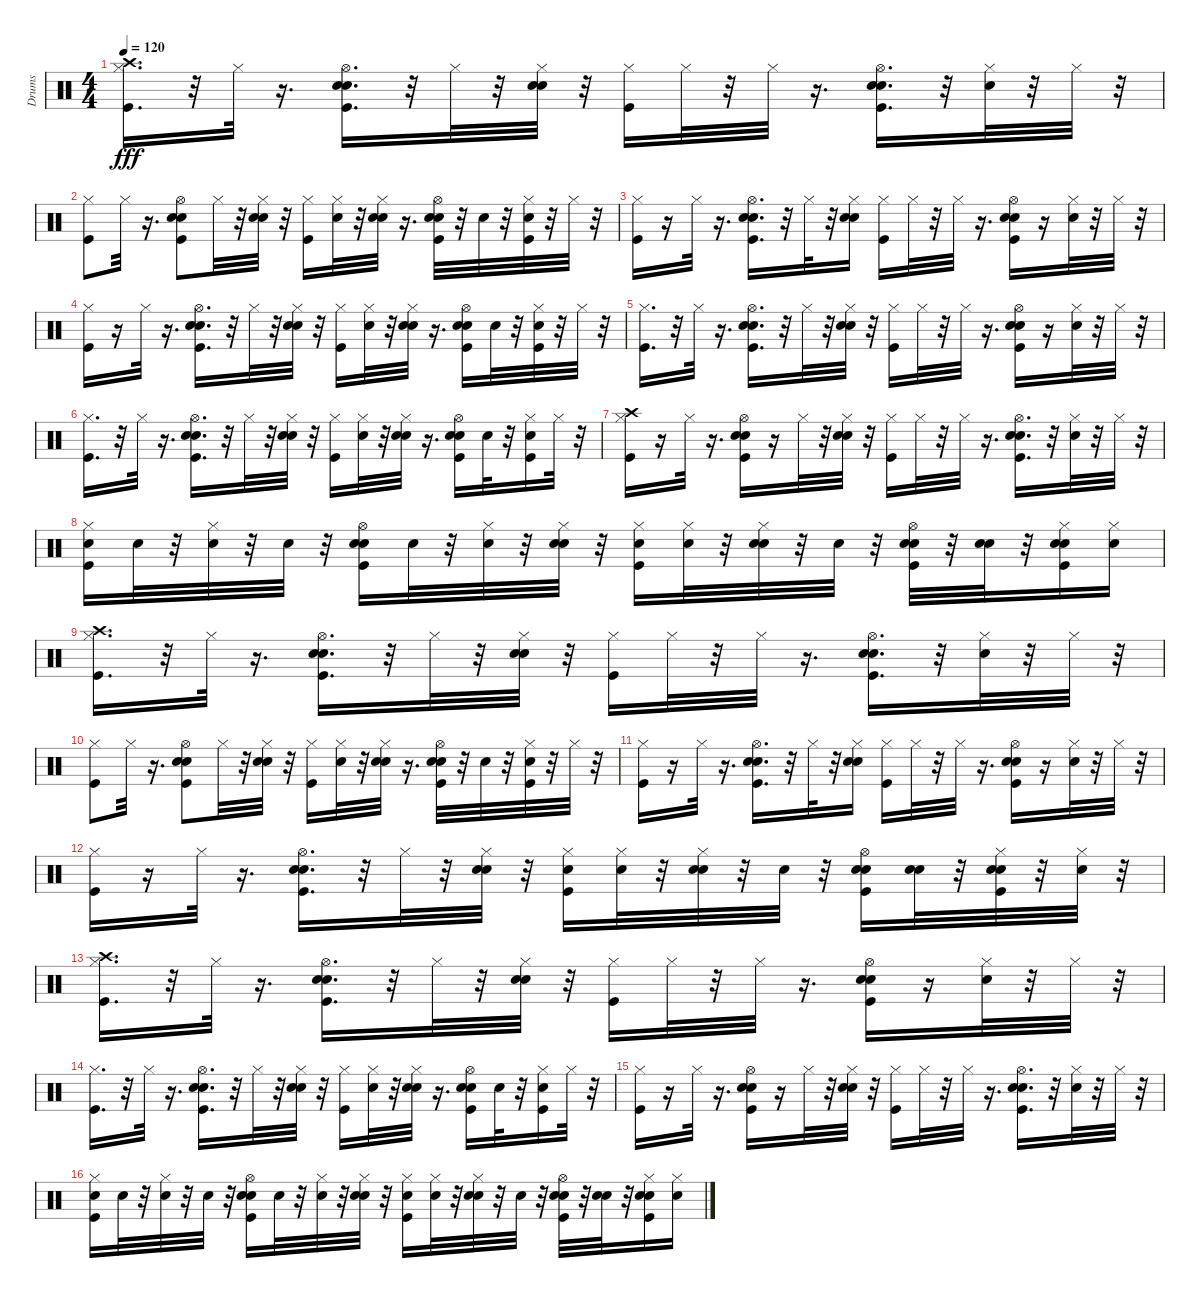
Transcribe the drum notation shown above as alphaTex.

\track ("Drums" "Drums") {instrument percussion}
\staff {score}
\articulation defaults
\ts (4 4)
\tempo 120
\clef neutral
\ks c
("Hi-Hat (closed)" "Kick (hit)" "Crash high (hit)").16{d dy fff} r.32 "Hi-Hat (closed)".32 r.16{d} ("Hi-Hat (open)" "Kick (hit)" "Hand Clap (hit)" "Electric Snare (hit)").16{d} r.32 "Hi-Hat (closed)".32 r.32 ("Hi-Hat (closed)" "Hand Clap (hit)" "Electric Snare (hit)").32 r.32 ("Hi-Hat (closed)" "Kick (hit)").16 "Hi-Hat (closed)".32 r.32 "Hi-Hat (closed)".32 r.16{d} ("Hi-Hat (open)" "Kick (hit)" "Hand Clap (hit)" "Electric Snare (hit)").16{d} r.32 ("Hi-Hat (closed)" "Hand Clap (hit)").32 r.32 "Hi-Hat (closed)".32 r.32 |
("Hi-Hat (closed)" "Kick (hit)").8 "Hi-Hat (closed)".32 r.16{d} ("Hi-Hat (open)" "Kick (hit)" "Hand Clap (hit)" "Electric Snare (hit)").8 "Hi-Hat (closed)".32 r.32 ("Hi-Hat (closed)" "Hand Clap (hit)" "Electric Snare (hit)").32 r.32 ("Hi-Hat (closed)" "Kick (hit)").16 ("Hi-Hat (closed)" "Electric Snare (hit)").32 r.32 ("Hi-Hat (closed)" "Hand Clap (hit)" "Electric Snare (hit)").32 r.16{d} ("Hi-Hat (open)" "Kick (hit)" "Hand Clap (hit)" "Electric Snare (hit)").32 r.32 "Hand Clap (hit)".32 r.32 ("Hi-Hat (closed)" "Kick (hit)" "Hand Clap (hit)").32 r.32 "Hi-Hat (closed)".32 r.32 |
("Hi-Hat (closed)" "Kick (hit)").16 r.16 "Hi-Hat (closed)".32 r.16{d} ("Hi-Hat (open)" "Kick (hit)" "Hand Clap (hit)" "Electric Snare (hit)").16{d} r.32 "Hi-Hat (closed)".32 r.32 ("Hi-Hat (closed)" "Hand Clap (hit)" "Electric Snare (hit)").16 ("Hi-Hat (closed)" "Kick (hit)").16 "Hi-Hat (closed)".32 r.32 "Hi-Hat (closed)".32 r.16{d} ("Hi-Hat (open)" "Kick (hit)" "Hand Clap (hit)" "Electric Snare (hit)").16 r.16 ("Hi-Hat (closed)" "Hand Clap (hit)").32 r.32 "Hi-Hat (closed)".32 r.32 |
("Hi-Hat (closed)" "Kick (hit)").16 r.16 "Hi-Hat (closed)".32 r.16{d} ("Hi-Hat (open)" "Kick (hit)" "Hand Clap (hit)" "Electric Snare (hit)").16{d} r.32 "Hi-Hat (closed)".32 r.32 ("Hi-Hat (closed)" "Hand Clap (hit)" "Electric Snare (hit)").32 r.32 ("Hi-Hat (closed)" "Kick (hit)").16 ("Hi-Hat (closed)" "Electric Snare (hit)").32 r.32 ("Hi-Hat (closed)" "Hand Clap (hit)" "Electric Snare (hit)").32 r.16{d} ("Hi-Hat (open)" "Kick (hit)" "Hand Clap (hit)" "Electric Snare (hit)").16 "Hand Clap (hit)".32 r.32 ("Hi-Hat (closed)" "Kick (hit)" "Hand Clap (hit)").32 r.32 "Hi-Hat (closed)".32 r.32 |
("Hi-Hat (closed)" "Kick (hit)").16{d} r.32 "Hi-Hat (closed)".32 r.16{d} ("Hi-Hat (open)" "Kick (hit)" "Hand Clap (hit)" "Electric Snare (hit)").16{d} r.32 "Hi-Hat (closed)".32 r.32 ("Hi-Hat (closed)" "Hand Clap (hit)" "Electric Snare (hit)").32 r.32 ("Hi-Hat (closed)" "Kick (hit)").16 "Hi-Hat (closed)".32 r.32 "Hi-Hat (closed)".32 r.16{d} ("Hi-Hat (open)" "Kick (hit)" "Hand Clap (hit)" "Electric Snare (hit)").16 r.16 ("Hi-Hat (closed)" "Hand Clap (hit)").32 r.32 "Hi-Hat (closed)".32 r.32 |
("Hi-Hat (closed)" "Kick (hit)").16{d} r.32 "Hi-Hat (closed)".32 r.16{d} ("Hi-Hat (open)" "Kick (hit)" "Hand Clap (hit)" "Electric Snare (hit)").16{d} r.32 "Hi-Hat (closed)".32 r.32 ("Hi-Hat (closed)" "Hand Clap (hit)" "Electric Snare (hit)").32 r.32 ("Hi-Hat (closed)" "Kick (hit)").16 ("Hi-Hat (closed)" "Electric Snare (hit)").32 r.32 ("Hi-Hat (closed)" "Hand Clap (hit)" "Electric Snare (hit)").32 r.16{d} ("Hi-Hat (open)" "Kick (hit)" "Hand Clap (hit)" "Electric Snare (hit)").16 "Hand Clap (hit)".32 r.32 ("Hi-Hat (closed)" "Kick (hit)" "Hand Clap (hit)").16 "Hi-Hat (closed)".32 r.32 |
("Hi-Hat (closed)" "Kick (hit)" "Crash high (hit)").16 r.16 "Hi-Hat (closed)".32 r.16{d} ("Hi-Hat (open)" "Kick (hit)" "Hand Clap (hit)" "Electric Snare (hit)").16 r.16 "Hi-Hat (closed)".32 r.32 ("Hi-Hat (closed)" "Hand Clap (hit)" "Electric Snare (hit)").32 r.32 ("Hi-Hat (closed)" "Kick (hit)").16 "Hi-Hat (closed)".32 r.32 "Hi-Hat (closed)".32 r.16{d} ("Hi-Hat (open)" "Kick (hit)" "Hand Clap (hit)" "Electric Snare (hit)").16{d} r.32 ("Hi-Hat (closed)" "Hand Clap (hit)").32 r.32 "Hi-Hat (closed)".32 r.32 |
("Hi-Hat (closed)" "Kick (hit)" "Electric Snare (hit)").16 "Electric Snare (hit)".32 r.32 ("Hi-Hat (closed)" "Electric Snare (hit)").32 r.32 "Electric Snare (hit)".32 r.32 ("Hi-Hat (open)" "Kick (hit)" "Hand Clap (hit)" "Electric Snare (hit)").16 "Electric Snare (hit)".32 r.32 ("Hi-Hat (closed)" "Electric Snare (hit)").32 r.32 ("Hi-Hat (closed)" "Hand Clap (hit)" "Electric Snare (hit)").32 r.32 ("Hi-Hat (closed)" "Kick (hit)" "Electric Snare (hit)").16 ("Hi-Hat (closed)" "Electric Snare (hit)").32 r.32 ("Hi-Hat (closed)" "Hand Clap (hit)" "Electric Snare (hit)").32 r.32 "Electric Snare (hit)".32 r.32 ("Hi-Hat (open)" "Kick (hit)" "Hand Clap (hit)" "Electric Snare (hit)").32 r.32 ("Hand Clap (hit)" "Electric Snare (hit)").32 r.32 ("Hi-Hat (closed)" "Kick (hit)" "Hand Clap (hit)" "Electric Snare (hit)").16 ("Hi-Hat (closed)" "Electric Snare (hit)").16 |
("Hi-Hat (closed)" "Kick (hit)" "Crash high (hit)").16{d} r.32 "Hi-Hat (closed)".32 r.16{d} ("Hi-Hat (open)" "Kick (hit)" "Hand Clap (hit)" "Electric Snare (hit)").16{d} r.32 "Hi-Hat (closed)".32 r.32 ("Hi-Hat (closed)" "Hand Clap (hit)" "Electric Snare (hit)").32 r.32 ("Hi-Hat (closed)" "Kick (hit)").16 "Hi-Hat (closed)".32 r.32 "Hi-Hat (closed)".32 r.16{d} ("Hi-Hat (open)" "Kick (hit)" "Hand Clap (hit)" "Electric Snare (hit)").16{d} r.32 ("Hi-Hat (closed)" "Hand Clap (hit)").32 r.32 "Hi-Hat (closed)".32 r.32 |
("Hi-Hat (closed)" "Kick (hit)").8 "Hi-Hat (closed)".32 r.16{d} ("Hi-Hat (open)" "Kick (hit)" "Hand Clap (hit)" "Electric Snare (hit)").8 "Hi-Hat (closed)".32 r.32 ("Hi-Hat (closed)" "Hand Clap (hit)" "Electric Snare (hit)").32 r.32 ("Hi-Hat (closed)" "Kick (hit)").16 ("Hi-Hat (closed)" "Electric Snare (hit)").32 r.32 ("Hi-Hat (closed)" "Hand Clap (hit)" "Electric Snare (hit)").32 r.16{d} ("Hi-Hat (open)" "Kick (hit)" "Hand Clap (hit)" "Electric Snare (hit)").32 r.32 "Hand Clap (hit)".32 r.32 ("Hi-Hat (closed)" "Kick (hit)" "Hand Clap (hit)").32 r.32 "Hi-Hat (closed)".32 r.32 |
("Hi-Hat (closed)" "Kick (hit)").16 r.16 "Hi-Hat (closed)".32 r.16{d} ("Hi-Hat (open)" "Kick (hit)" "Hand Clap (hit)" "Electric Snare (hit)").16{d} r.32 "Hi-Hat (closed)".32 r.32 ("Hi-Hat (closed)" "Hand Clap (hit)" "Electric Snare (hit)").16 ("Hi-Hat (closed)" "Kick (hit)").16 "Hi-Hat (closed)".32 r.32 "Hi-Hat (closed)".32 r.16{d} ("Hi-Hat (open)" "Kick (hit)" "Hand Clap (hit)" "Electric Snare (hit)").16 r.16 ("Hi-Hat (closed)" "Hand Clap (hit)").32 r.32 "Hi-Hat (closed)".32 r.32 |
("Hi-Hat (closed)" "Kick (hit)").16 r.16 "Hi-Hat (closed)".32 r.16{d} ("Hi-Hat (open)" "Kick (hit)" "Hand Clap (hit)" "Electric Snare (hit)").16{d} r.32 "Hi-Hat (closed)".32 r.32 ("Hi-Hat (closed)" "Hand Clap (hit)" "Electric Snare (hit)").32 r.32 ("Hi-Hat (closed)" "Kick (hit)" "Electric Snare (hit)").16 ("Hi-Hat (closed)" "Electric Snare (hit)").32 r.32 ("Hi-Hat (closed)" "Hand Clap (hit)" "Electric Snare (hit)").32 r.32 "Electric Snare (hit)".32 r.32 ("Hi-Hat (open)" "Kick (hit)" "Hand Clap (hit)" "Electric Snare (hit)").16 ("Hand Clap (hit)" "Electric Snare (hit)").32 r.32 ("Hi-Hat (closed)" "Kick (hit)" "Hand Clap (hit)" "Electric Snare (hit)").32 r.32 ("Hi-Hat (closed)" "Electric Snare (hit)").32 r.32 |
("Hi-Hat (closed)" "Kick (hit)" "Crash high (hit)").16{d} r.32 "Hi-Hat (closed)".32 r.16{d} ("Hi-Hat (open)" "Kick (hit)" "Hand Clap (hit)" "Electric Snare (hit)").16{d} r.32 "Hi-Hat (closed)".32 r.32 ("Hi-Hat (closed)" "Hand Clap (hit)" "Electric Snare (hit)").32 r.32 ("Hi-Hat (closed)" "Kick (hit)").16 "Hi-Hat (closed)".32 r.32 "Hi-Hat (closed)".32 r.16{d} ("Hi-Hat (open)" "Kick (hit)" "Hand Clap (hit)" "Electric Snare (hit)").16 r.16 ("Hi-Hat (closed)" "Hand Clap (hit)").32 r.32 "Hi-Hat (closed)".32 r.32 |
("Hi-Hat (closed)" "Kick (hit)").16{d} r.32 "Hi-Hat (closed)".32 r.16{d} ("Hi-Hat (open)" "Kick (hit)" "Hand Clap (hit)" "Electric Snare (hit)").16{d} r.32 "Hi-Hat (closed)".32 r.32 ("Hi-Hat (closed)" "Hand Clap (hit)" "Electric Snare (hit)").32 r.32 ("Hi-Hat (closed)" "Kick (hit)").16 ("Hi-Hat (closed)" "Electric Snare (hit)").32 r.32 ("Hi-Hat (closed)" "Hand Clap (hit)" "Electric Snare (hit)").32 r.16{d} ("Hi-Hat (open)" "Kick (hit)" "Hand Clap (hit)" "Electric Snare (hit)").16 "Hand Clap (hit)".32 r.32 ("Hi-Hat (closed)" "Kick (hit)" "Hand Clap (hit)").16 "Hi-Hat (closed)".32 r.32 |
("Hi-Hat (closed)" "Kick (hit)").16 r.16 "Hi-Hat (closed)".32 r.16{d} ("Hi-Hat (open)" "Kick (hit)" "Hand Clap (hit)" "Electric Snare (hit)").16 r.16 "Hi-Hat (closed)".32 r.32 ("Hi-Hat (closed)" "Hand Clap (hit)" "Electric Snare (hit)").32 r.32 ("Hi-Hat (closed)" "Kick (hit)").16 "Hi-Hat (closed)".32 r.32 "Hi-Hat (closed)".32 r.16{d} ("Hi-Hat (open)" "Kick (hit)" "Hand Clap (hit)" "Electric Snare (hit)").16{d} r.32 ("Hi-Hat (closed)" "Hand Clap (hit)").32 r.32 "Hi-Hat (closed)".32 r.32 |
("Hi-Hat (closed)" "Kick (hit)" "Electric Snare (hit)").16 "Electric Snare (hit)".32 r.32 ("Hi-Hat (closed)" "Electric Snare (hit)").32 r.32 "Electric Snare (hit)".32 r.32 ("Hi-Hat (open)" "Kick (hit)" "Hand Clap (hit)" "Electric Snare (hit)").16 "Electric Snare (hit)".32 r.32 ("Hi-Hat (closed)" "Electric Snare (hit)").32 r.32 ("Hi-Hat (closed)" "Hand Clap (hit)" "Electric Snare (hit)").32 r.32 ("Hi-Hat (closed)" "Kick (hit)" "Electric Snare (hit)").16 ("Hi-Hat (closed)" "Electric Snare (hit)").32 r.32 ("Hi-Hat (closed)" "Hand Clap (hit)" "Electric Snare (hit)").32 r.32 "Electric Snare (hit)".32 r.32 ("Hi-Hat (open)" "Kick (hit)" "Hand Clap (hit)" "Electric Snare (hit)").32 r.32 ("Hand Clap (hit)" "Electric Snare (hit)").32 r.32 ("Hi-Hat (closed)" "Kick (hit)" "Hand Clap (hit)" "Electric Snare (hit)").16 ("Hi-Hat (closed)" "Electric Snare (hit)").16
